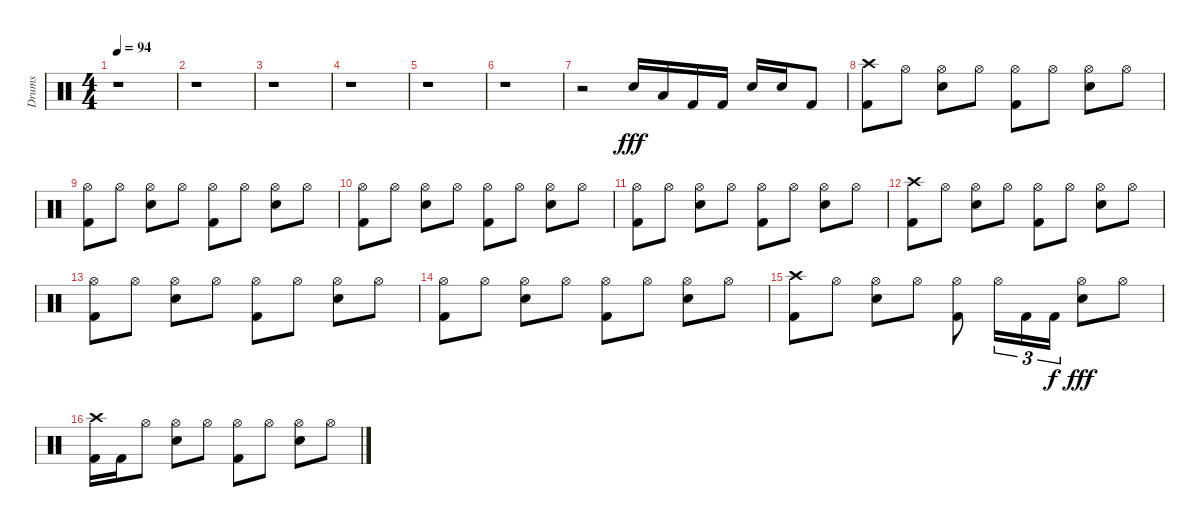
\track ("Drums" "Drums") {instrument percussion}
\staff {score}
\articulation defaults
\ts (4 4)
\tempo 94
\clef neutral
\ks c
r.1{dy fff} |
r.1 |
r.1 |
r.1 |
r.1 |
r.1 |
r.2 "Snare (hit) 2".16 "Low Tom (hit)".16 "Kick (hit) 2".16 "Kick (hit) 2".16 "Snare (hit) 2".16 "Snare (hit) 2".16 "Kick (hit) 2".8 |
("Kick (hit) 2" "Crash high (hit)").8 "Hi-Hat (open)".8 ("Snare (hit) 2" "Hi-Hat (open)").8 "Hi-Hat (open)".8 ("Kick (hit) 2" "Hi-Hat (open)").8 "Hi-Hat (open)".8 ("Snare (hit) 2" "Hi-Hat (open)").8 "Hi-Hat (open)".8 |
("Kick (hit) 2" "Hi-Hat (open)").8 "Hi-Hat (open)".8 ("Snare (hit) 2" "Hi-Hat (open)").8 "Hi-Hat (open)".8 ("Kick (hit) 2" "Hi-Hat (open)").8 "Hi-Hat (open)".8 ("Snare (hit) 2" "Hi-Hat (open)").8 "Hi-Hat (open)".8 |
("Kick (hit) 2" "Hi-Hat (open)").8 "Hi-Hat (open)".8 ("Snare (hit) 2" "Hi-Hat (open)").8 "Hi-Hat (open)".8 ("Kick (hit) 2" "Hi-Hat (open)").8 "Hi-Hat (open)".8 ("Snare (hit) 2" "Hi-Hat (open)").8 "Hi-Hat (open)".8 |
("Kick (hit) 2" "Hi-Hat (open)").8 "Hi-Hat (open)".8 ("Snare (hit) 2" "Hi-Hat (open)").8 "Hi-Hat (open)".8 ("Kick (hit) 2" "Hi-Hat (open)").8 "Hi-Hat (open)".8 ("Snare (hit) 2" "Hi-Hat (open)").8 "Hi-Hat (open)".8 |
("Kick (hit) 2" "Crash high (hit)").8 "Hi-Hat (open)".8 ("Snare (hit) 2" "Hi-Hat (open)").8 "Hi-Hat (open)".8 ("Kick (hit) 2" "Hi-Hat (open)").8 "Hi-Hat (open)".8 ("Snare (hit) 2" "Hi-Hat (open)").8 "Hi-Hat (open)".8 |
("Kick (hit) 2" "Hi-Hat (open)").8 "Hi-Hat (open)".8 ("Snare (hit) 2" "Hi-Hat (open)").8 "Hi-Hat (open)".8 ("Kick (hit) 2" "Hi-Hat (open)").8 "Hi-Hat (open)".8 ("Snare (hit) 2" "Hi-Hat (open)").8 "Hi-Hat (open)".8 |
("Kick (hit) 2" "Hi-Hat (open)").8 "Hi-Hat (open)".8 ("Snare (hit) 2" "Hi-Hat (open)").8 "Hi-Hat (open)".8 ("Kick (hit) 2" "Hi-Hat (open)").8 "Hi-Hat (open)".8 ("Snare (hit) 2" "Hi-Hat (open)").8 "Hi-Hat (open)".8 |
("Kick (hit) 2" "Crash high (hit)").8 "Hi-Hat (open)".8 ("Snare (hit) 2" "Hi-Hat (open)").8 "Hi-Hat (open)".8 ("Kick (hit) 2" "Hi-Hat (open)").8 "Hi-Hat (open)".16{tu (3 2)} "Kick (hit) 2".16{tu (3 2)} "Kick (hit) 2".16{tu (3 2) dy f} ("Snare (hit) 2" "Hi-Hat (open)").8{dy fff} "Hi-Hat (open)".8 |
("Kick (hit) 2" "Crash high (hit)").16 "Kick (hit) 2".16 "Hi-Hat (open)".8 ("Snare (hit) 2" "Hi-Hat (open)").8 "Hi-Hat (open)".8 ("Kick (hit) 2" "Hi-Hat (open)").8 "Hi-Hat (open)".8 ("Snare (hit) 2" "Hi-Hat (open)").8 "Hi-Hat (open)".8
